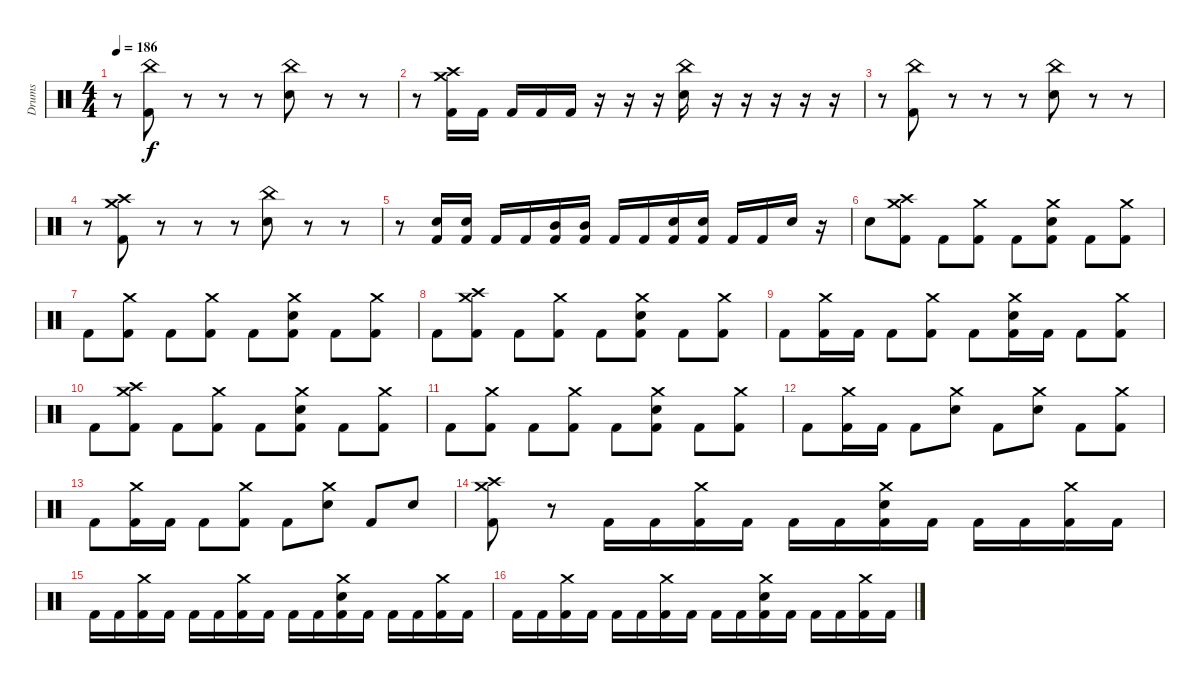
\track ("Drums" "Drums") {instrument percussion bank 177}
\staff {score}
\articulation defaults
\ts (4 4)
\tempo 186
\clef neutral
\ks c
r.8{dy f} ("China (hit)" "Kick (hit) 2").8 r.8 r.8 r.8 ("China (hit)" "Snare (hit) 2").8 r.8 r.8 |
r.8 ("Crash high (hit)" "Crash medium (hit)" "Kick (hit) 2").16 "Kick (hit) 2".16 "Kick (hit) 2".16 "Kick (hit) 2".16 "Kick (hit) 2".16 r.16 r.16 r.16 ("China (hit)" "Snare (hit) 2").16 r.16 r.16 r.16 r.16 r.16 |
r.8 ("China (hit)" "Kick (hit) 2").8 r.8 r.8 r.8 ("China (hit)" "Snare (hit) 2").8 r.8 r.8 |
r.8 ("Crash high (hit)" "Crash medium (hit)" "Kick (hit) 2").8 r.8 r.8 r.8 ("China (hit)" "Snare (hit) 2").8 r.8 r.8 |
r.8 ("Snare (hit) 2" "Kick (hit) 2").16 ("Snare (hit) 2" "Kick (hit) 2").16 "Kick (hit) 2".16 "Kick (hit) 2".16 ("Mid Tom (hit)" "Kick (hit) 2").16 ("Mid Tom (hit)" "Kick (hit) 2").16 "Kick (hit) 2".16 "Kick (hit) 2".16 ("Snare (hit) 2" "Kick (hit) 2").16 ("Snare (hit) 2" "Kick (hit) 2").16 "Kick (hit) 2".16 "Kick (hit) 2".16 "Snare (hit) 2".16 r.16 |
"Snare (hit) 2".8 ("Crash high (hit)" "Crash medium (hit)" "Kick (hit) 2").8 "Kick (hit) 2".8 ("Crash medium (hit)" "Kick (hit) 2").8 "Kick (hit) 2".8 ("Crash medium (hit)" "Snare (hit) 2" "Kick (hit) 2").8 "Kick (hit) 2".8 ("Crash medium (hit)" "Kick (hit) 2").8 |
"Kick (hit) 2".8 ("Crash medium (hit)" "Kick (hit) 2").8 "Kick (hit) 2".8 ("Crash medium (hit)" "Kick (hit) 2").8 "Kick (hit) 2".8 ("Crash medium (hit)" "Snare (hit) 2" "Kick (hit) 2").8 "Kick (hit) 2".8 ("Crash medium (hit)" "Kick (hit) 2").8 |
"Kick (hit) 2".8 ("Crash high (hit)" "Crash medium (hit)" "Kick (hit) 2").8 "Kick (hit) 2".8 ("Crash medium (hit)" "Kick (hit) 2").8 "Kick (hit) 2".8 ("Crash medium (hit)" "Snare (hit) 2" "Kick (hit) 2").8 "Kick (hit) 2".8 ("Crash medium (hit)" "Kick (hit) 2").8 |
"Kick (hit) 2".8 ("Crash medium (hit)" "Kick (hit) 2").16 "Kick (hit) 2".16 "Kick (hit) 2".8 ("Crash medium (hit)" "Kick (hit) 2").8 "Kick (hit) 2".8 ("Crash medium (hit)" "Snare (hit) 2" "Kick (hit) 2").16 "Kick (hit) 2".16 "Kick (hit) 2".8 ("Crash medium (hit)" "Kick (hit) 2").8 |
"Kick (hit) 2".8 ("Crash high (hit)" "Crash medium (hit)" "Kick (hit) 2").8 "Kick (hit) 2".8 ("Crash medium (hit)" "Kick (hit) 2").8 "Kick (hit) 2".8 ("Crash medium (hit)" "Snare (hit) 2" "Kick (hit) 2").8 "Kick (hit) 2".8 ("Crash medium (hit)" "Kick (hit) 2").8 |
"Kick (hit) 2".8 ("Crash medium (hit)" "Kick (hit) 2").8 "Kick (hit) 2".8 ("Crash medium (hit)" "Kick (hit) 2").8 "Kick (hit) 2".8 ("Crash medium (hit)" "Snare (hit) 2" "Kick (hit) 2").8 "Kick (hit) 2".8 ("Crash medium (hit)" "Kick (hit) 2").8 |
"Kick (hit) 2".8 ("Crash medium (hit)" "Kick (hit) 2").16 "Kick (hit) 2".16 "Kick (hit) 2".8 ("Crash medium (hit)" "Snare (hit) 2").8 "Kick (hit) 2".8 ("Crash medium (hit)" "Snare (hit) 2").8 "Kick (hit) 2".8 ("Crash medium (hit)" "Kick (hit) 2").8 |
"Kick (hit) 2".8 ("Crash medium (hit)" "Kick (hit) 2").16 "Kick (hit) 2".16 "Kick (hit) 2".8 ("Crash medium (hit)" "Kick (hit) 2").8 "Kick (hit) 2".8 ("Crash medium (hit)" "Snare (hit) 2").8 "Kick (hit) 2".8 "Snare (hit) 2".8 |
("Crash high (hit)" "Crash medium (hit)" "Kick (hit) 2").8 r.8 "Kick (hit) 2".16 "Kick (hit) 2".16 ("Crash medium (hit)" "Kick (hit) 2").16 "Kick (hit) 2".16 "Kick (hit) 2".16 "Kick (hit) 2".16 ("Crash medium (hit)" "Snare (hit) 2" "Kick (hit) 2").16 "Kick (hit) 2".16 "Kick (hit) 2".16 "Kick (hit) 2".16 ("Crash medium (hit)" "Kick (hit) 2").16 "Kick (hit) 2".16 |
"Kick (hit) 2".16 "Kick (hit) 2".16 ("Crash medium (hit)" "Kick (hit) 2").16 "Kick (hit) 2".16 "Kick (hit) 2".16 "Kick (hit) 2".16 ("Crash medium (hit)" "Kick (hit) 2").16 "Kick (hit) 2".16 "Kick (hit) 2".16 "Kick (hit) 2".16 ("Crash medium (hit)" "Snare (hit) 2" "Kick (hit) 2").16 "Kick (hit) 2".16 "Kick (hit) 2".16 "Kick (hit) 2".16 ("Crash medium (hit)" "Kick (hit) 2").16 "Kick (hit) 2".16 |
"Kick (hit) 2".16 "Kick (hit) 2".16 ("Crash medium (hit)" "Kick (hit) 2").16 "Kick (hit) 2".16 "Kick (hit) 2".16 "Kick (hit) 2".16 ("Crash medium (hit)" "Kick (hit) 2").16 "Kick (hit) 2".16 "Kick (hit) 2".16 "Kick (hit) 2".16 ("Crash medium (hit)" "Snare (hit) 2" "Kick (hit) 2").16 "Kick (hit) 2".16 "Kick (hit) 2".16 "Kick (hit) 2".16 ("Crash medium (hit)" "Kick (hit) 2").16 "Kick (hit) 2".16
